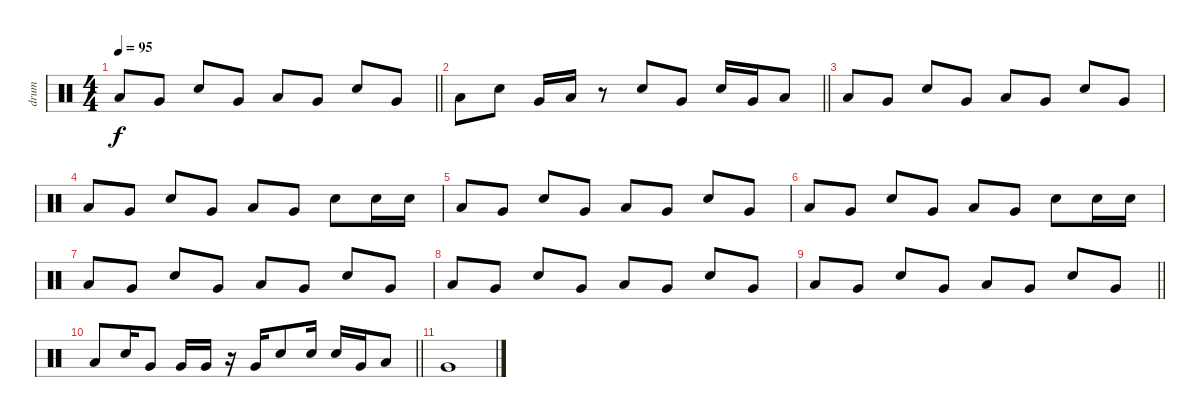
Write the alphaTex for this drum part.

\track ("drum" "drum") {instrument percussion}
\staff {score}
\articulation defaults
\ts (4 4)
\tempo 95
\clef neutral
\barLineRight lightlight
\ks c "Low Floor Tom (hit)".8{dy f} "Very Low Tom (hit)".8 "Snare (hit) 2".8 "Very Low Tom (hit)".8 "Low Floor Tom (hit)".8 "Very Low Tom (hit)".8 "Snare (hit) 2".8 "Very Low Tom (hit)".8
|
\section ("" "")
\barLineRight lightlight "Low Floor Tom (hit)".8 "Snare (hit) 2".8 "Very Low Tom (hit)".16 "Low Floor Tom (hit)".16
r.8 "Snare (hit) 2".8 "Very Low Tom (hit)".8 "Snare (hit) 2".16 "Very Low Tom (hit)".16 "Low Floor Tom (hit)".8 |
\section ("" "")
"Low Floor Tom (hit)".8 "Very Low Tom (hit)".8 "Snare (hit) 2".8 "Very Low Tom (hit)".8 "Low Floor Tom (hit)".8 "Very Low Tom (hit)".8 "Snare (hit) 2".8 "Very Low Tom (hit)".8 |
"Low Floor Tom (hit)".8 "Very Low Tom (hit)".8 "Snare (hit) 2".8 "Very Low Tom (hit)".8 "Low Floor Tom (hit)".8 "Very Low Tom (hit)".8 "Snare (hit) 2".8 "Snare (hit) 2".16 "Snare (hit) 2".16 |
"Low Floor Tom (hit)".8 "Very Low Tom (hit)".8 "Snare (hit) 2".8 "Very Low Tom (hit)".8 "Low Floor Tom (hit)".8 "Very Low Tom (hit)".8 "Snare (hit) 2".8 "Very Low Tom (hit)".8 |
"Low Floor Tom (hit)".8 "Very Low Tom (hit)".8 "Snare (hit) 2".8 "Very Low Tom (hit)".8 "Low Floor Tom (hit)".8 "Very Low Tom (hit)".8 "Snare (hit) 2".8 "Snare (hit) 2".16 "Snare (hit) 2".16 |
"Low Floor Tom (hit)".8 "Very Low Tom (hit)".8 "Snare (hit) 2".8 "Very Low Tom (hit)".8 "Low Floor Tom (hit)".8 "Very Low Tom (hit)".8 "Snare (hit) 2".8 "Very Low Tom (hit)".8 |
"Low Floor Tom (hit)".8 "Very Low Tom (hit)".8 "Snare (hit) 2".8 "Very Low Tom (hit)".8 "Low Floor Tom (hit)".8 "Very Low Tom (hit)".8 "Snare (hit) 2".8 "Very Low Tom (hit)".8 |
\barLineRight lightlight "Low Floor Tom (hit)".8 "Very Low Tom (hit)".8 "Snare (hit) 2".8 "Very Low Tom (hit)".8 "Low Floor Tom (hit)".8 "Very Low Tom (hit)".8 "Snare (hit) 2".8 "Very Low Tom (hit)".8
|
\section ("" "")
\barLineRight lightlight "Low Floor Tom (hit)".8 "Snare (hit) 2".16 "Very Low Tom (hit)".8 "Very Low Tom (hit)".16 "Very Low Tom (hit)".16
r.16 "Very Low Tom (hit)".16 "Snare (hit) 2".8 "Snare (hit) 2".16 "Electric Snare (hit)".16 "Very Low Tom (hit)".16 "Low Floor Tom (hit)".8 |
\section ("" "")
"Very Low Tom (hit)".1
